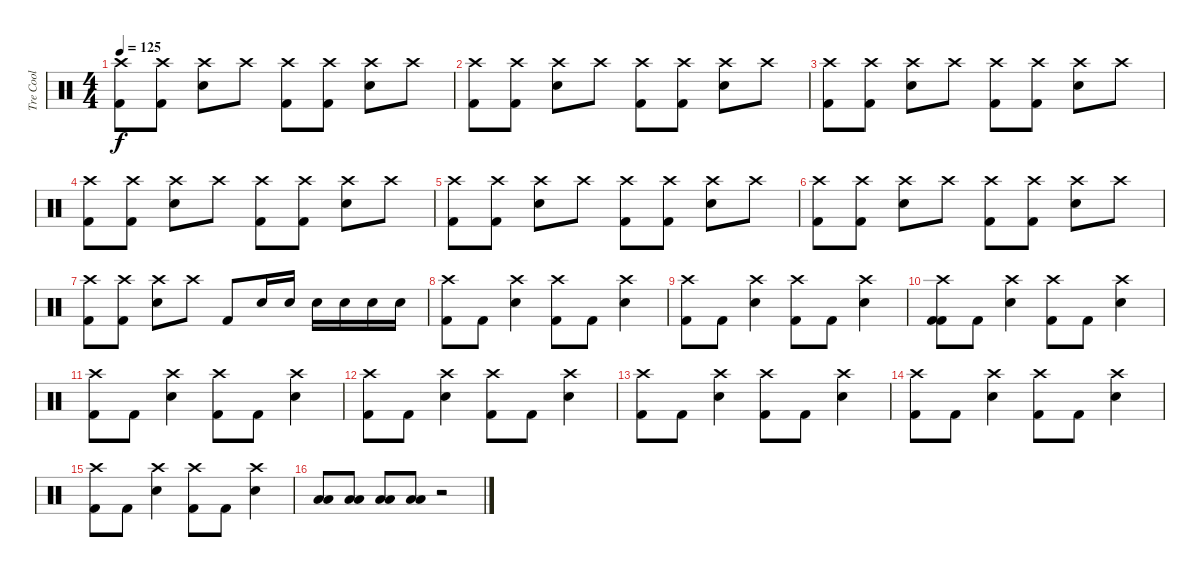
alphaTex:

\track ("Tre Cool" "Tre Cool") {instrument percussion}
\staff {score}
\articulation defaults
\ts (4 4)
\tempo 125
\clef neutral
\ks c
("Crash high (hit)" "Kick (hit) 2").8{dy f} ("Crash high (hit)" "Kick (hit) 2").8 ("Crash high (hit)" "Electric Snare (hit)").8 "Crash high (hit)".8 ("Crash high (hit)" "Kick (hit) 2").8 ("Crash high (hit)" "Kick (hit) 2").8 ("Crash high (hit)" "Electric Snare (hit)").8 "Crash high (hit)".8 |
("Crash high (hit)" "Kick (hit) 2").8 ("Crash high (hit)" "Kick (hit) 2").8 ("Crash high (hit)" "Electric Snare (hit)").8 "Crash high (hit)".8 ("Crash high (hit)" "Kick (hit) 2").8 ("Crash high (hit)" "Kick (hit) 2").8 ("Crash high (hit)" "Electric Snare (hit)").8 "Crash high (hit)".8 |
("Crash high (hit)" "Kick (hit) 2").8 ("Crash high (hit)" "Kick (hit) 2").8 ("Crash high (hit)" "Electric Snare (hit)").8 "Crash high (hit)".8 ("Crash high (hit)" "Kick (hit) 2").8 ("Crash high (hit)" "Kick (hit) 2").8 ("Crash high (hit)" "Electric Snare (hit)").8 "Crash high (hit)".8 |
("Crash high (hit)" "Kick (hit) 2").8 ("Crash high (hit)" "Kick (hit) 2").8 ("Crash high (hit)" "Electric Snare (hit)").8 "Crash high (hit)".8 ("Crash high (hit)" "Kick (hit) 2").8 ("Crash high (hit)" "Kick (hit) 2").8 ("Crash high (hit)" "Electric Snare (hit)").8 "Crash high (hit)".8 |
("Crash high (hit)" "Kick (hit) 2").8 ("Crash high (hit)" "Kick (hit) 2").8 ("Crash high (hit)" "Electric Snare (hit)").8 "Crash high (hit)".8 ("Crash high (hit)" "Kick (hit) 2").8 ("Crash high (hit)" "Kick (hit) 2").8 ("Crash high (hit)" "Electric Snare (hit)").8 "Crash high (hit)".8 |
("Crash high (hit)" "Kick (hit) 2").8 ("Crash high (hit)" "Kick (hit) 2").8 ("Crash high (hit)" "Electric Snare (hit)").8 "Crash high (hit)".8 ("Crash high (hit)" "Kick (hit) 2").8 ("Crash high (hit)" "Kick (hit) 2").8 ("Crash high (hit)" "Electric Snare (hit)").8 "Crash high (hit)".8 |
("Crash high (hit)" "Kick (hit) 2").8 ("Crash high (hit)" "Kick (hit) 2").8 ("Crash high (hit)" "Electric Snare (hit)").8 "Crash high (hit)".8 "Kick (hit) 2".8 "Electric Snare (hit)".16 "Electric Snare (hit)".16 "Electric Snare (hit)".16 "Electric Snare (hit)".16 "Electric Snare (hit)".16 "Electric Snare (hit)".16 |
("Crash high (hit)" "Kick (hit) 2").8 "Kick (hit) 2".8 ("Crash high (hit)" "Electric Snare (hit)").4 ("Crash high (hit)" "Kick (hit) 2").8 "Kick (hit) 2".8 ("Crash high (hit)" "Electric Snare (hit)").4 |
("Crash high (hit)" "Kick (hit) 2").8 "Kick (hit) 2".8 ("Crash high (hit)" "Electric Snare (hit)").4 ("Crash high (hit)" "Kick (hit) 2").8 "Kick (hit) 2".8 ("Crash high (hit)" "Electric Snare (hit)").4 |
("Crash high (hit)" "Kick (hit) 2" "Kick (hit) 2").8 "Kick (hit) 2".8 ("Crash high (hit)" "Electric Snare (hit)").4 ("Crash high (hit)" "Kick (hit) 2").8 "Kick (hit) 2".8 ("Crash high (hit)" "Electric Snare (hit)").4 |
("Crash high (hit)" "Kick (hit) 2").8 "Kick (hit) 2".8 ("Crash high (hit)" "Electric Snare (hit)").4 ("Crash high (hit)" "Kick (hit) 2").8 "Kick (hit) 2".8 ("Crash high (hit)" "Electric Snare (hit)").4 |
("Crash high (hit)" "Kick (hit) 2").8 "Kick (hit) 2".8 ("Crash high (hit)" "Electric Snare (hit)").4 ("Crash high (hit)" "Kick (hit) 2").8 "Kick (hit) 2".8 ("Crash high (hit)" "Electric Snare (hit)").4 |
("Crash high (hit)" "Kick (hit) 2").8 "Kick (hit) 2".8 ("Crash high (hit)" "Electric Snare (hit)").4 ("Crash high (hit)" "Kick (hit) 2").8 "Kick (hit) 2".8 ("Crash high (hit)" "Electric Snare (hit)").4 |
("Crash high (hit)" "Kick (hit) 2").8 "Kick (hit) 2".8 ("Crash high (hit)" "Electric Snare (hit)").4 ("Crash high (hit)" "Kick (hit) 2").8 "Kick (hit) 2".8 ("Crash high (hit)" "Electric Snare (hit)").4 |
("Crash high (hit)" "Kick (hit) 2").8 "Kick (hit) 2".8 ("Crash high (hit)" "Electric Snare (hit)").4 ("Crash high (hit)" "Kick (hit) 2").8 "Kick (hit) 2".8 ("Crash high (hit)" "Electric Snare (hit)").4 |
("Low Floor Tom (hit)" "Low Tom (hit)").8 ("Low Floor Tom (hit)" "Low Tom (hit)").8 ("Low Floor Tom (hit)" "Low Tom (hit)").8 ("Low Floor Tom (hit)" "Low Tom (hit)").8 r.2
